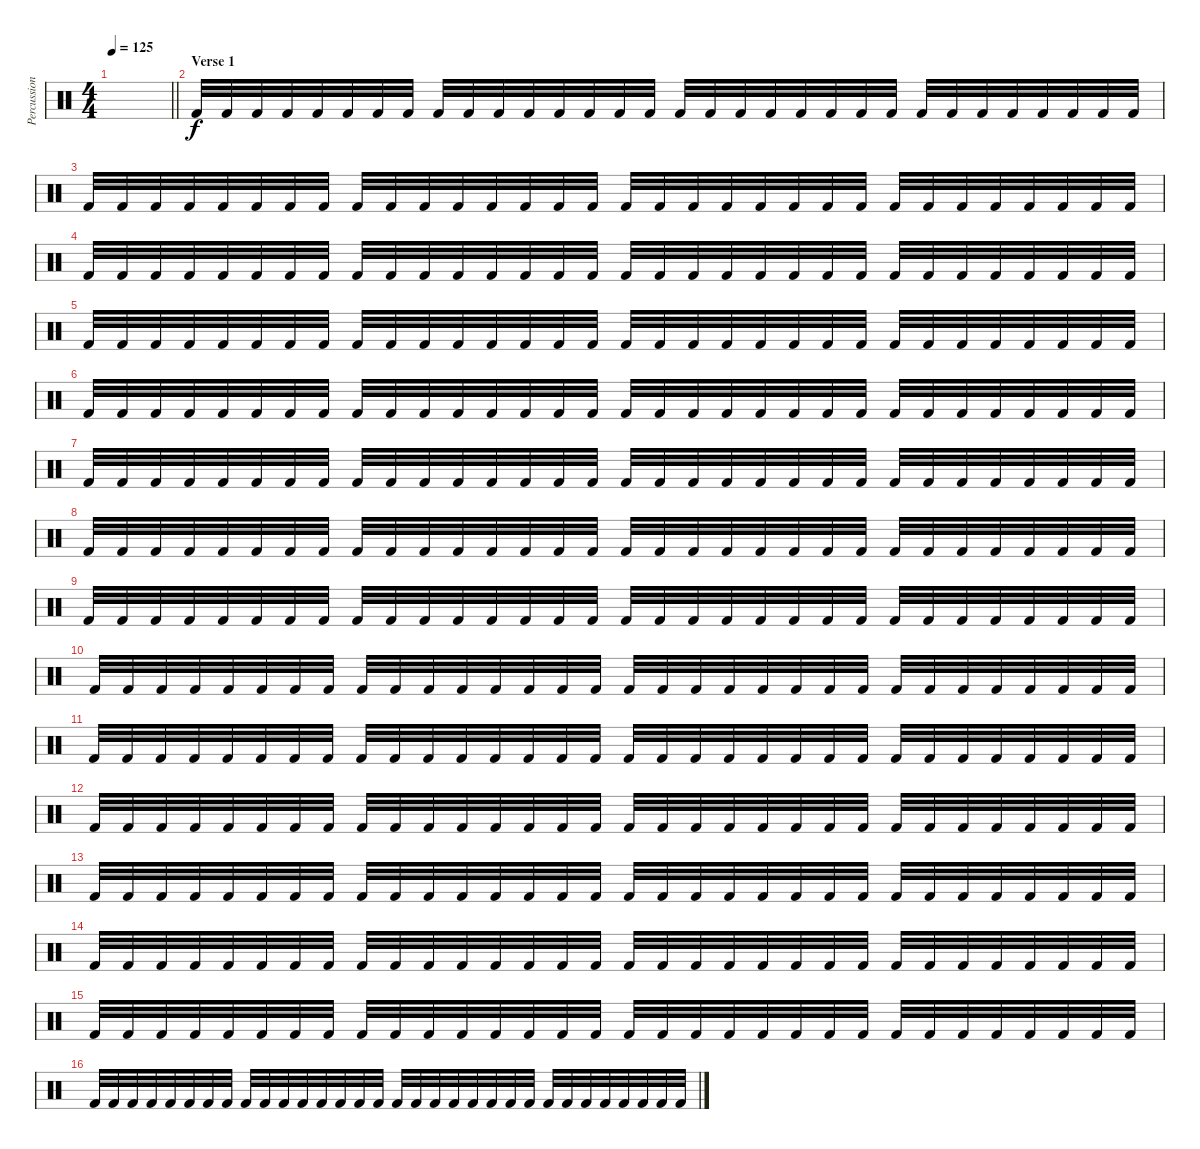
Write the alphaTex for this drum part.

\track ("Percussion" "Percussion") {instrument percussion}
\staff {score}
\articulation defaults
\ts (4 4)
\tempo 125
\clef neutral
\barLineRight lightlight
\ks c
|
\section ("" "Verse 1")
"Kick (hit) 2".32 "Kick (hit) 2".32 "Kick (hit) 2".32 "Kick (hit) 2".32 "Kick (hit) 2".32 "Kick (hit) 2".32 "Kick (hit) 2".32 "Kick (hit) 2".32 "Kick (hit) 2".32 "Kick (hit) 2".32 "Kick (hit) 2".32 "Kick (hit) 2".32 "Kick (hit) 2".32 "Kick (hit) 2".32 "Kick (hit) 2".32 "Kick (hit) 2".32 "Kick (hit) 2".32 "Kick (hit) 2".32 "Kick (hit) 2".32 "Kick (hit) 2".32 "Kick (hit) 2".32 "Kick (hit) 2".32 "Kick (hit) 2".32 "Kick (hit) 2".32 "Kick (hit) 2".32 "Kick (hit) 2".32 "Kick (hit) 2".32 "Kick (hit) 2".32 "Kick (hit) 2".32 "Kick (hit) 2".32 "Kick (hit) 2".32 "Kick (hit) 2".32 |
"Kick (hit) 2".32 "Kick (hit) 2".32 "Kick (hit) 2".32 "Kick (hit) 2".32 "Kick (hit) 2".32 "Kick (hit) 2".32 "Kick (hit) 2".32 "Kick (hit) 2".32 "Kick (hit) 2".32 "Kick (hit) 2".32 "Kick (hit) 2".32 "Kick (hit) 2".32 "Kick (hit) 2".32 "Kick (hit) 2".32 "Kick (hit) 2".32 "Kick (hit) 2".32 "Kick (hit) 2".32 "Kick (hit) 2".32 "Kick (hit) 2".32 "Kick (hit) 2".32 "Kick (hit) 2".32 "Kick (hit) 2".32 "Kick (hit) 2".32 "Kick (hit) 2".32 "Kick (hit) 2".32 "Kick (hit) 2".32 "Kick (hit) 2".32 "Kick (hit) 2".32 "Kick (hit) 2".32 "Kick (hit) 2".32 "Kick (hit) 2".32 "Kick (hit) 2".32 |
"Kick (hit) 2".32 "Kick (hit) 2".32 "Kick (hit) 2".32 "Kick (hit) 2".32 "Kick (hit) 2".32 "Kick (hit) 2".32 "Kick (hit) 2".32 "Kick (hit) 2".32 "Kick (hit) 2".32 "Kick (hit) 2".32 "Kick (hit) 2".32 "Kick (hit) 2".32 "Kick (hit) 2".32 "Kick (hit) 2".32 "Kick (hit) 2".32 "Kick (hit) 2".32 "Kick (hit) 2".32 "Kick (hit) 2".32 "Kick (hit) 2".32 "Kick (hit) 2".32 "Kick (hit) 2".32 "Kick (hit) 2".32 "Kick (hit) 2".32 "Kick (hit) 2".32 "Kick (hit) 2".32 "Kick (hit) 2".32 "Kick (hit) 2".32 "Kick (hit) 2".32 "Kick (hit) 2".32 "Kick (hit) 2".32 "Kick (hit) 2".32 "Kick (hit) 2".32 |
"Kick (hit) 2".32 "Kick (hit) 2".32 "Kick (hit) 2".32 "Kick (hit) 2".32 "Kick (hit) 2".32 "Kick (hit) 2".32 "Kick (hit) 2".32 "Kick (hit) 2".32 "Kick (hit) 2".32 "Kick (hit) 2".32 "Kick (hit) 2".32 "Kick (hit) 2".32 "Kick (hit) 2".32 "Kick (hit) 2".32 "Kick (hit) 2".32 "Kick (hit) 2".32 "Kick (hit) 2".32 "Kick (hit) 2".32 "Kick (hit) 2".32 "Kick (hit) 2".32 "Kick (hit) 2".32 "Kick (hit) 2".32 "Kick (hit) 2".32 "Kick (hit) 2".32 "Kick (hit) 2".32 "Kick (hit) 2".32 "Kick (hit) 2".32 "Kick (hit) 2".32 "Kick (hit) 2".32 "Kick (hit) 2".32 "Kick (hit) 2".32 "Kick (hit) 2".32 |
"Kick (hit) 2".32 "Kick (hit) 2".32 "Kick (hit) 2".32 "Kick (hit) 2".32 "Kick (hit) 2".32 "Kick (hit) 2".32 "Kick (hit) 2".32 "Kick (hit) 2".32 "Kick (hit) 2".32 "Kick (hit) 2".32 "Kick (hit) 2".32 "Kick (hit) 2".32 "Kick (hit) 2".32 "Kick (hit) 2".32 "Kick (hit) 2".32 "Kick (hit) 2".32 "Kick (hit) 2".32 "Kick (hit) 2".32 "Kick (hit) 2".32 "Kick (hit) 2".32 "Kick (hit) 2".32 "Kick (hit) 2".32 "Kick (hit) 2".32 "Kick (hit) 2".32 "Kick (hit) 2".32 "Kick (hit) 2".32 "Kick (hit) 2".32 "Kick (hit) 2".32 "Kick (hit) 2".32 "Kick (hit) 2".32 "Kick (hit) 2".32 "Kick (hit) 2".32 |
"Kick (hit) 2".32 "Kick (hit) 2".32 "Kick (hit) 2".32 "Kick (hit) 2".32 "Kick (hit) 2".32 "Kick (hit) 2".32 "Kick (hit) 2".32 "Kick (hit) 2".32 "Kick (hit) 2".32 "Kick (hit) 2".32 "Kick (hit) 2".32 "Kick (hit) 2".32 "Kick (hit) 2".32 "Kick (hit) 2".32 "Kick (hit) 2".32 "Kick (hit) 2".32 "Kick (hit) 2".32 "Kick (hit) 2".32 "Kick (hit) 2".32 "Kick (hit) 2".32 "Kick (hit) 2".32 "Kick (hit) 2".32 "Kick (hit) 2".32 "Kick (hit) 2".32 "Kick (hit) 2".32 "Kick (hit) 2".32 "Kick (hit) 2".32 "Kick (hit) 2".32 "Kick (hit) 2".32 "Kick (hit) 2".32 "Kick (hit) 2".32 "Kick (hit) 2".32 |
"Kick (hit) 2".32 "Kick (hit) 2".32 "Kick (hit) 2".32 "Kick (hit) 2".32 "Kick (hit) 2".32 "Kick (hit) 2".32 "Kick (hit) 2".32 "Kick (hit) 2".32 "Kick (hit) 2".32 "Kick (hit) 2".32 "Kick (hit) 2".32 "Kick (hit) 2".32 "Kick (hit) 2".32 "Kick (hit) 2".32 "Kick (hit) 2".32 "Kick (hit) 2".32 "Kick (hit) 2".32 "Kick (hit) 2".32 "Kick (hit) 2".32 "Kick (hit) 2".32 "Kick (hit) 2".32 "Kick (hit) 2".32 "Kick (hit) 2".32 "Kick (hit) 2".32 "Kick (hit) 2".32 "Kick (hit) 2".32 "Kick (hit) 2".32 "Kick (hit) 2".32 "Kick (hit) 2".32 "Kick (hit) 2".32 "Kick (hit) 2".32 "Kick (hit) 2".32 |
"Kick (hit) 2".32 "Kick (hit) 2".32 "Kick (hit) 2".32 "Kick (hit) 2".32 "Kick (hit) 2".32 "Kick (hit) 2".32 "Kick (hit) 2".32 "Kick (hit) 2".32 "Kick (hit) 2".32 "Kick (hit) 2".32 "Kick (hit) 2".32 "Kick (hit) 2".32 "Kick (hit) 2".32 "Kick (hit) 2".32 "Kick (hit) 2".32 "Kick (hit) 2".32 "Kick (hit) 2".32 "Kick (hit) 2".32 "Kick (hit) 2".32 "Kick (hit) 2".32 "Kick (hit) 2".32 "Kick (hit) 2".32 "Kick (hit) 2".32 "Kick (hit) 2".32 "Kick (hit) 2".32 "Kick (hit) 2".32 "Kick (hit) 2".32 "Kick (hit) 2".32 "Kick (hit) 2".32 "Kick (hit) 2".32 "Kick (hit) 2".32 "Kick (hit) 2".32 |
"Kick (hit) 2".32 "Kick (hit) 2".32 "Kick (hit) 2".32 "Kick (hit) 2".32 "Kick (hit) 2".32 "Kick (hit) 2".32 "Kick (hit) 2".32 "Kick (hit) 2".32 "Kick (hit) 2".32 "Kick (hit) 2".32 "Kick (hit) 2".32 "Kick (hit) 2".32 "Kick (hit) 2".32 "Kick (hit) 2".32 "Kick (hit) 2".32 "Kick (hit) 2".32 "Kick (hit) 2".32 "Kick (hit) 2".32 "Kick (hit) 2".32 "Kick (hit) 2".32 "Kick (hit) 2".32 "Kick (hit) 2".32 "Kick (hit) 2".32 "Kick (hit) 2".32 "Kick (hit) 2".32 "Kick (hit) 2".32 "Kick (hit) 2".32 "Kick (hit) 2".32 "Kick (hit) 2".32 "Kick (hit) 2".32 "Kick (hit) 2".32 "Kick (hit) 2".32 |
"Kick (hit) 2".32 "Kick (hit) 2".32 "Kick (hit) 2".32 "Kick (hit) 2".32 "Kick (hit) 2".32 "Kick (hit) 2".32 "Kick (hit) 2".32 "Kick (hit) 2".32 "Kick (hit) 2".32 "Kick (hit) 2".32 "Kick (hit) 2".32 "Kick (hit) 2".32 "Kick (hit) 2".32 "Kick (hit) 2".32 "Kick (hit) 2".32 "Kick (hit) 2".32 "Kick (hit) 2".32 "Kick (hit) 2".32 "Kick (hit) 2".32 "Kick (hit) 2".32 "Kick (hit) 2".32 "Kick (hit) 2".32 "Kick (hit) 2".32 "Kick (hit) 2".32 "Kick (hit) 2".32 "Kick (hit) 2".32 "Kick (hit) 2".32 "Kick (hit) 2".32 "Kick (hit) 2".32 "Kick (hit) 2".32 "Kick (hit) 2".32 "Kick (hit) 2".32 |
"Kick (hit) 2".32 "Kick (hit) 2".32 "Kick (hit) 2".32 "Kick (hit) 2".32 "Kick (hit) 2".32 "Kick (hit) 2".32 "Kick (hit) 2".32 "Kick (hit) 2".32 "Kick (hit) 2".32 "Kick (hit) 2".32 "Kick (hit) 2".32 "Kick (hit) 2".32 "Kick (hit) 2".32 "Kick (hit) 2".32 "Kick (hit) 2".32 "Kick (hit) 2".32 "Kick (hit) 2".32 "Kick (hit) 2".32 "Kick (hit) 2".32 "Kick (hit) 2".32 "Kick (hit) 2".32 "Kick (hit) 2".32 "Kick (hit) 2".32 "Kick (hit) 2".32 "Kick (hit) 2".32 "Kick (hit) 2".32 "Kick (hit) 2".32 "Kick (hit) 2".32 "Kick (hit) 2".32 "Kick (hit) 2".32 "Kick (hit) 2".32 "Kick (hit) 2".32 |
"Kick (hit) 2".32 "Kick (hit) 2".32 "Kick (hit) 2".32 "Kick (hit) 2".32 "Kick (hit) 2".32 "Kick (hit) 2".32 "Kick (hit) 2".32 "Kick (hit) 2".32 "Kick (hit) 2".32 "Kick (hit) 2".32 "Kick (hit) 2".32 "Kick (hit) 2".32 "Kick (hit) 2".32 "Kick (hit) 2".32 "Kick (hit) 2".32 "Kick (hit) 2".32 "Kick (hit) 2".32 "Kick (hit) 2".32 "Kick (hit) 2".32 "Kick (hit) 2".32 "Kick (hit) 2".32 "Kick (hit) 2".32 "Kick (hit) 2".32 "Kick (hit) 2".32 "Kick (hit) 2".32 "Kick (hit) 2".32 "Kick (hit) 2".32 "Kick (hit) 2".32 "Kick (hit) 2".32 "Kick (hit) 2".32 "Kick (hit) 2".32 "Kick (hit) 2".32 |
"Kick (hit) 2".32 "Kick (hit) 2".32 "Kick (hit) 2".32 "Kick (hit) 2".32 "Kick (hit) 2".32 "Kick (hit) 2".32 "Kick (hit) 2".32 "Kick (hit) 2".32 "Kick (hit) 2".32 "Kick (hit) 2".32 "Kick (hit) 2".32 "Kick (hit) 2".32 "Kick (hit) 2".32 "Kick (hit) 2".32 "Kick (hit) 2".32 "Kick (hit) 2".32 "Kick (hit) 2".32 "Kick (hit) 2".32 "Kick (hit) 2".32 "Kick (hit) 2".32 "Kick (hit) 2".32 "Kick (hit) 2".32 "Kick (hit) 2".32 "Kick (hit) 2".32 "Kick (hit) 2".32 "Kick (hit) 2".32 "Kick (hit) 2".32 "Kick (hit) 2".32 "Kick (hit) 2".32 "Kick (hit) 2".32 "Kick (hit) 2".32 "Kick (hit) 2".32 |
"Kick (hit) 2".32 "Kick (hit) 2".32 "Kick (hit) 2".32 "Kick (hit) 2".32 "Kick (hit) 2".32 "Kick (hit) 2".32 "Kick (hit) 2".32 "Kick (hit) 2".32 "Kick (hit) 2".32 "Kick (hit) 2".32 "Kick (hit) 2".32 "Kick (hit) 2".32 "Kick (hit) 2".32 "Kick (hit) 2".32 "Kick (hit) 2".32 "Kick (hit) 2".32 "Kick (hit) 2".32 "Kick (hit) 2".32 "Kick (hit) 2".32 "Kick (hit) 2".32 "Kick (hit) 2".32 "Kick (hit) 2".32 "Kick (hit) 2".32 "Kick (hit) 2".32 "Kick (hit) 2".32 "Kick (hit) 2".32 "Kick (hit) 2".32 "Kick (hit) 2".32 "Kick (hit) 2".32 "Kick (hit) 2".32 "Kick (hit) 2".32 "Kick (hit) 2".32 |
"Kick (hit) 2".32 "Kick (hit) 2".32 "Kick (hit) 2".32 "Kick (hit) 2".32 "Kick (hit) 2".32 "Kick (hit) 2".32 "Kick (hit) 2".32 "Kick (hit) 2".32 "Kick (hit) 2".32 "Kick (hit) 2".32 "Kick (hit) 2".32 "Kick (hit) 2".32 "Kick (hit) 2".32 "Kick (hit) 2".32 "Kick (hit) 2".32 "Kick (hit) 2".32 "Kick (hit) 2".32 "Kick (hit) 2".32 "Kick (hit) 2".32 "Kick (hit) 2".32 "Kick (hit) 2".32 "Kick (hit) 2".32 "Kick (hit) 2".32 "Kick (hit) 2".32 "Kick (hit) 2".32 "Kick (hit) 2".32 "Kick (hit) 2".32 "Kick (hit) 2".32 "Kick (hit) 2".32 "Kick (hit) 2".32 "Kick (hit) 2".32 "Kick (hit) 2".32
